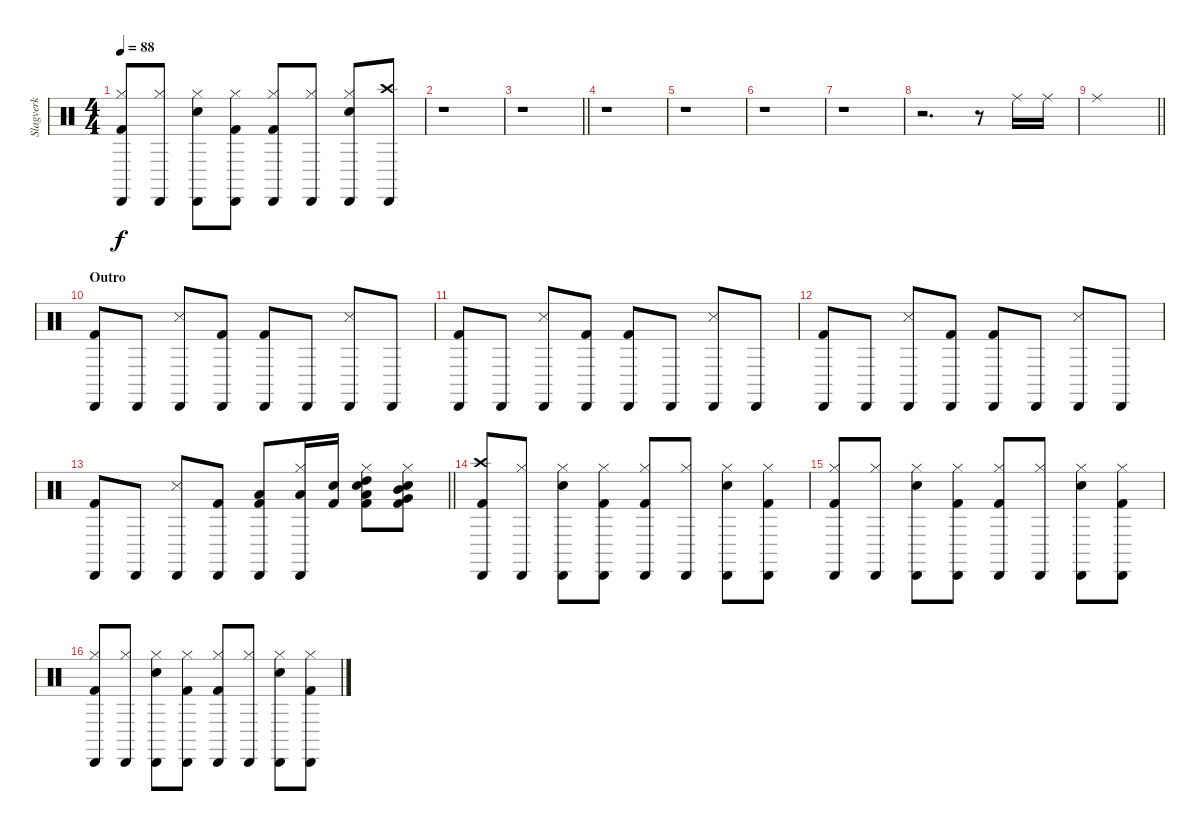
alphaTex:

\track ("Slagverk" "Slagverk") {instrument percussion}
\staff {score}
\articulation defaults
\ts (4 4)
\tempo 88
\clef neutral
\ks c
("Hi-Hat (closed)" "Cabasa (hit)" "Kick (hit) 2").8{dy f} ("Hi-Hat (closed)" "Cabasa (hit)").8 ("Hi-Hat (closed)" "Snare (hit) 2" "Cabasa (hit)").8 ("Hi-Hat (closed)" "Cabasa (hit)" "Kick (hit) 2").8 ("Hi-Hat (closed)" "Cabasa (hit)" "Kick (hit) 2").8 ("Hi-Hat (closed)" "Cabasa (hit)").8 ("Hi-Hat (closed)" "Snare (hit) 2" "Cabasa (hit)").8 ("Crash high (hit)" "Cabasa (hit)").8 |
r.1 |
\barLineRight lightlight
r.1 |
r.1 |
r.1 |
r.1 |
r.1 |
r.2{d} r.8 "Ride (middle)".16 "Ride (middle)".16 |
\barLineRight lightlight "Ride (middle)".1
|
\section ("" "Outro")
("Cabasa (hit)" "Kick (hit) 2").8 "Cabasa (hit)".8 ("Snare (side stick) 3" "Cabasa (hit)").8 ("Cabasa (hit)" "Kick (hit) 2").8 ("Cabasa (hit)" "Kick (hit) 2").8 "Cabasa (hit)".8 ("Snare (side stick) 3" "Cabasa (hit)").8 "Cabasa (hit)".8 |
("Cabasa (hit)" "Kick (hit) 2").8 "Cabasa (hit)".8 ("Snare (side stick) 3" "Cabasa (hit)").8 ("Cabasa (hit)" "Kick (hit) 2").8 ("Cabasa (hit)" "Kick (hit) 2").8 "Cabasa (hit)".8 ("Snare (side stick) 3" "Cabasa (hit)").8 "Cabasa (hit)".8 |
("Cabasa (hit)" "Kick (hit) 2").8 "Cabasa (hit)".8 ("Snare (side stick) 3" "Cabasa (hit)").8 ("Cabasa (hit)" "Kick (hit) 2").8 ("Cabasa (hit)" "Kick (hit) 2").8 "Cabasa (hit)".8 ("Snare (side stick) 3" "Cabasa (hit)").8 "Cabasa (hit)".8 |
\barLineRight lightlight
("Cabasa (hit)" "Kick (hit) 2").8 "Cabasa (hit)".8 ("Snare (side stick) 3" "Cabasa (hit)").8 ("Cabasa (hit)" "Kick (hit) 2").8 ("Low Floor Tom (hit)" "Cabasa (hit)" "Kick (hit) 2").8 ("Hi-Hat (closed)" "Low Tom (hit)" "Cabasa (hit)").16 ("Snare (hit) 2" "Kick (hit) 2").16 ("High Tom (hit)" "Hi-Hat (closed)" "Low Tom (hit)" "Snare (hit) 2" "Kick (hit) 2").8 ("Mid Tom (hit)" "Snare (hit) 2" "Very Low Tom (hit)" "Hi-Hat (closed)" "Kick (hit) 2").8 |
("Crash high (hit)" "Cabasa (hit)" "Kick (hit) 2").8 ("Hi-Hat (closed)" "Cabasa (hit)").8 ("Hi-Hat (closed)" "Snare (hit) 2" "Cabasa (hit)").8 ("Hi-Hat (closed)" "Cabasa (hit)" "Kick (hit) 2").8 ("Hi-Hat (closed)" "Cabasa (hit)" "Kick (hit) 2").8 ("Hi-Hat (closed)" "Cabasa (hit)").8 ("Hi-Hat (closed)" "Snare (hit) 2" "Cabasa (hit)").8 ("Hi-Hat (closed)" "Cabasa (hit)" "Kick (hit) 2").8 |
("Hi-Hat (closed)" "Cabasa (hit)" "Kick (hit) 2").8 ("Hi-Hat (closed)" "Cabasa (hit)").8 ("Hi-Hat (closed)" "Snare (hit) 2" "Cabasa (hit)").8 ("Hi-Hat (closed)" "Cabasa (hit)" "Kick (hit) 2").8 ("Hi-Hat (closed)" "Cabasa (hit)" "Kick (hit) 2").8 ("Hi-Hat (closed)" "Cabasa (hit)").8 ("Hi-Hat (closed)" "Snare (hit) 2" "Cabasa (hit)").8 ("Hi-Hat (closed)" "Cabasa (hit)" "Kick (hit) 2").8 |
("Hi-Hat (closed)" "Cabasa (hit)" "Kick (hit) 2").8 ("Hi-Hat (closed)" "Cabasa (hit)").8 ("Hi-Hat (closed)" "Snare (hit) 2" "Cabasa (hit)").8 ("Hi-Hat (closed)" "Cabasa (hit)" "Kick (hit) 2").8 ("Hi-Hat (closed)" "Cabasa (hit)" "Kick (hit) 2").8 ("Hi-Hat (closed)" "Cabasa (hit)").8 ("Hi-Hat (closed)" "Snare (hit) 2" "Cabasa (hit)").8 ("Hi-Hat (closed)" "Cabasa (hit)" "Kick (hit) 2").8
